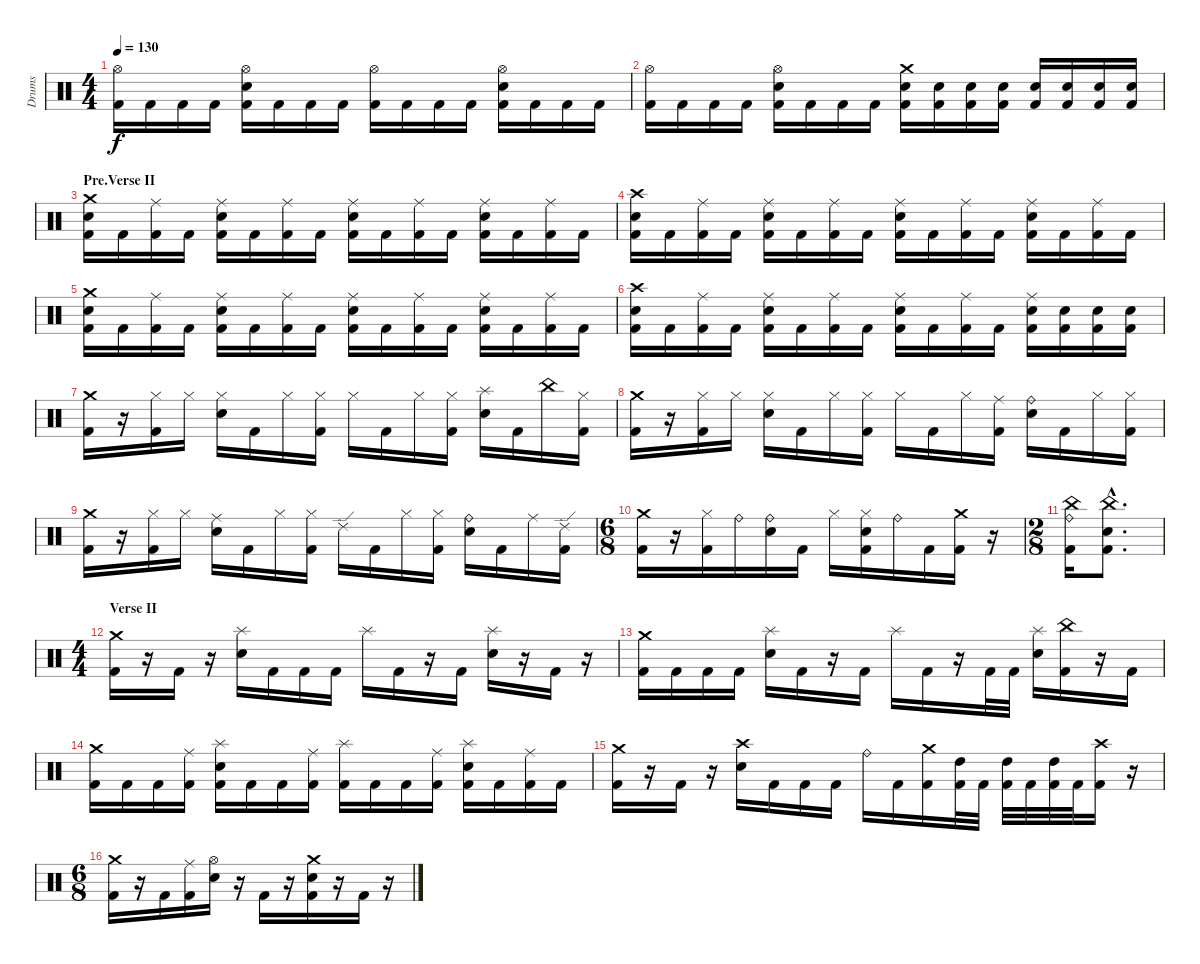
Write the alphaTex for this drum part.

\track ("Drums" "Drums") {instrument percussion}
\staff {score}
\articulation defaults
\ts (4 4)
\tempo 130
\clef neutral
\ks c
("Hi-Hat (open)" "Kick (hit) 2").16{dy f} "Kick (hit) 2".16 "Kick (hit) 2".16 "Kick (hit) 2".16 ("Hi-Hat (open)" "Electric Snare (hit)" "Kick (hit) 2").16 "Kick (hit) 2".16 "Kick (hit) 2".16 "Kick (hit) 2".16 ("Hi-Hat (open)" "Kick (hit) 2").16 "Kick (hit) 2".16 "Kick (hit) 2".16 "Kick (hit) 2".16 ("Hi-Hat (open)" "Electric Snare (hit)" "Kick (hit) 2").16 "Kick (hit) 2".16 "Kick (hit) 2".16 "Kick (hit) 2".16 |
("Hi-Hat (open)" "Kick (hit) 2").16 "Kick (hit) 2".16 "Kick (hit) 2".16 "Kick (hit) 2".16 ("Hi-Hat (open)" "Electric Snare (hit)" "Kick (hit) 2").16 "Kick (hit) 2".16 "Kick (hit) 2".16 "Kick (hit) 2".16 ("Crash medium (hit)" "Electric Snare (hit)" "Kick (hit) 2").16 ("Electric Snare (hit)" "Kick (hit) 2").16 ("Electric Snare (hit)" "Kick (hit) 2").16 ("Electric Snare (hit)" "Kick (hit) 2").16 ("Electric Snare (hit)" "Kick (hit) 2").16 ("Electric Snare (hit)" "Kick (hit) 2").16 ("Electric Snare (hit)" "Kick (hit) 2").16 ("Electric Snare (hit)" "Kick (hit) 2").16 |
\section ("" "Pre.Verse II")
("Crash medium (hit)" "Electric Snare (hit)" "Kick (hit) 2").16 "Kick (hit) 2".16 ("Ride (middle)" "Kick (hit) 2").16 "Kick (hit) 2".16 ("Ride (middle)" "Electric Snare (hit)" "Kick (hit) 2").16 "Kick (hit) 2".16 ("Ride (middle)" "Kick (hit) 2").16 "Kick (hit) 2".16 ("Ride (middle)" "Electric Snare (hit)" "Kick (hit) 2").16 "Kick (hit) 2".16 ("Ride (middle)" "Kick (hit) 2").16 "Kick (hit) 2".16 ("Ride (middle)" "Electric Snare (hit)" "Kick (hit) 2").16 "Kick (hit) 2".16 ("Ride (middle)" "Kick (hit) 2").16 "Kick (hit) 2".16 |
("Crash high (hit)" "Electric Snare (hit)" "Kick (hit) 2").16 "Kick (hit) 2".16 ("Ride (middle)" "Kick (hit) 2").16 "Kick (hit) 2".16 ("Ride (middle)" "Electric Snare (hit)" "Kick (hit) 2").16 "Kick (hit) 2".16 ("Ride (middle)" "Kick (hit) 2").16 "Kick (hit) 2".16 ("Ride (middle)" "Electric Snare (hit)" "Kick (hit) 2").16 "Kick (hit) 2".16 ("Ride (middle)" "Kick (hit) 2").16 "Kick (hit) 2".16 ("Ride (middle)" "Electric Snare (hit)" "Kick (hit) 2").16 "Kick (hit) 2".16 ("Ride (middle)" "Kick (hit) 2").16 "Kick (hit) 2".16 |
("Crash medium (hit)" "Electric Snare (hit)" "Kick (hit) 2").16 "Kick (hit) 2".16 ("Ride (middle)" "Kick (hit) 2").16 "Kick (hit) 2".16 ("Ride (middle)" "Electric Snare (hit)" "Kick (hit) 2").16 "Kick (hit) 2".16 ("Ride (middle)" "Kick (hit) 2").16 "Kick (hit) 2".16 ("Ride (middle)" "Electric Snare (hit)" "Kick (hit) 2").16 "Kick (hit) 2".16 ("Ride (middle)" "Kick (hit) 2").16 "Kick (hit) 2".16 ("Ride (middle)" "Electric Snare (hit)" "Kick (hit) 2").16 "Kick (hit) 2".16 ("Ride (middle)" "Kick (hit) 2").16 "Kick (hit) 2".16 |
("Crash high (hit)" "Electric Snare (hit)" "Kick (hit) 2").16 "Kick (hit) 2".16 ("Ride (middle)" "Kick (hit) 2").16 "Kick (hit) 2".16 ("Ride (middle)" "Electric Snare (hit)" "Kick (hit) 2").16 "Kick (hit) 2".16 ("Ride (middle)" "Kick (hit) 2").16 "Kick (hit) 2".16 ("Ride (middle)" "Electric Snare (hit)" "Kick (hit) 2").16 "Kick (hit) 2".16 ("Ride (middle)" "Kick (hit) 2").16 "Kick (hit) 2".16 ("Ride (middle)" "Electric Snare (hit)" "Kick (hit) 2").16 ("Electric Snare (hit)" "Kick (hit) 2").16 ("Electric Snare (hit)" "Kick (hit) 2").16 ("Electric Snare (hit)" "Kick (hit) 2").16 |
("Crash medium (hit)" "Kick (hit) 2").16 r.16 ("Hi-Hat (closed)" "Kick (hit) 2").16 "Hi-Hat (closed)".16 ("Hi-Hat (closed)" "Electric Snare (hit)").16 "Kick (hit) 2".16 "Hi-Hat (closed)".16 ("Hi-Hat (closed)" "Kick (hit) 2").16 "Hi-Hat (closed)".16 "Kick (hit) 2".16 "Hi-Hat (closed)".16 ("Hi-Hat (closed)" "Kick (hit) 2").16 ("Splash (hit)" "Electric Snare (hit)").16 "Kick (hit) 2".16 "China (hit)".16 ("Hi-Hat (closed)" "Kick (hit) 2").16 |
("Crash medium (hit)" "Kick (hit) 2").16 r.16 ("Hi-Hat (closed)" "Kick (hit) 2").16 "Hi-Hat (closed)".16 ("Hi-Hat (closed)" "Electric Snare (hit)").16 "Kick (hit) 2".16 "Hi-Hat (closed)".16 ("Hi-Hat (closed)" "Kick (hit) 2").16 "Hi-Hat (closed)".16 "Kick (hit) 2".16 "Hi-Hat (closed)".16 ("Ride (middle)" "Kick (hit) 2").16 ("Ride (bell)" "Electric Snare (hit)").16 "Kick (hit) 2".16 "Hi-Hat (closed)".16 ("Hi-Hat (closed)" "Kick (hit) 2").16 |
("Crash medium (hit)" "Kick (hit) 2").16 r.16 ("Hi-Hat (closed)" "Kick (hit) 2").16 "Hi-Hat (closed)".16 ("Ride (middle)" "Electric Snare (hit)").16 "Kick (hit) 2".16 "Hi-Hat (closed)".16 ("Hi-Hat (closed)" "Kick (hit) 2").16 "Ride (edge) 2".16 "Kick (hit) 2".16 "Hi-Hat (closed)".16 ("Hi-Hat (closed)" "Kick (hit) 2").16 ("Ride (bell)" "Electric Snare (hit)").16 "Kick (hit) 2".16 "Ride (middle)".16 ("Ride (edge) 2" "Kick (hit) 2").16 |
\ts (6 8)
("Crash medium (hit)" "Kick (hit) 2").16 r.16 ("Hi-Hat (closed)" "Kick (hit) 2").16 "Ride (bell)".16 ("Ride (bell)" "Electric Snare (hit)").16 "Kick (hit) 2".16 "Hi-Hat (closed)".16 ("Hi-Hat (closed)" "Electric Snare (hit)" "Kick (hit) 2").16 "Ride (bell)".16 "Kick (hit) 2".16 ("Crash medium (hit)" "Kick (hit) 2").16 r.16 |
\ts (2 8)
("China (hit)" "Ride (bell)" "Kick (hit) 2").16 ("China (hit)"{hac} "Electric Snare (hit)"{hac} "Kick (hit) 2"{hac}).8{d} |
\ts (4 4)
\section ("" "Verse II")
("Crash medium (hit)" "Kick (hit) 2").16 r.16 "Kick (hit) 2".16 r.16 ("Splash (hit)" "Electric Snare (hit)").16 "Kick (hit) 2".16 "Kick (hit) 2".16 "Kick (hit) 2".16 "Splash (hit)".16 "Kick (hit) 2".16 r.16 "Kick (hit) 2".16 ("Splash (hit)" "Electric Snare (hit)").16 r.16 "Kick (hit) 2".16 r.16 |
("Crash medium (hit)" "Kick (hit) 2").16 "Kick (hit) 2".16 "Kick (hit) 2".16 "Kick (hit) 2".16 ("Splash (hit)" "Electric Snare (hit)").16 "Kick (hit) 2".16 r.16 "Kick (hit) 2".16 "Splash (hit)".16 "Kick (hit) 2".16 r.16 "Kick (hit) 2".32 "Kick (hit) 2".32 ("Splash (hit)" "Electric Snare (hit)").16 ("China (hit)" "Kick (hit) 2").16 r.16 "Kick (hit) 2".16 |
("Crash medium (hit)" "Kick (hit) 2").16 "Kick (hit) 2".16 "Kick (hit) 2".16 ("Ride (middle)" "Kick (hit) 2").16 ("Splash (hit)" "Electric Snare (hit)" "Kick (hit) 2").16 "Kick (hit) 2".16 "Kick (hit) 2".16 ("Ride (middle)" "Kick (hit) 2").16 ("Splash (hit)" "Kick (hit) 2").16 "Kick (hit) 2".16 "Kick (hit) 2".16 ("Ride (middle)" "Kick (hit) 2").16 ("Splash (hit)" "Electric Snare (hit)" "Kick (hit) 2").16 "Kick (hit) 2".16 ("Ride (middle)" "Kick (hit) 2").16 "Kick (hit) 2".16 |
("Crash medium (hit)" "Kick (hit) 2").16 r.16 "Kick (hit) 2".16 r.16 ("Crash high (hit)" "Electric Snare (hit)").16 "Kick (hit) 2".16 "Kick (hit) 2".16 "Kick (hit) 2".16 "Ride (bell)".16 "Kick (hit) 2".16 ("Crash medium (hit)" "Kick (hit) 2").16 ("High Tom (hit)" "Kick (hit) 2").32 "Kick (hit) 2".32 ("High Tom (hit)" "Kick (hit) 2").32 "Kick (hit) 2".32 ("High Tom (hit)" "Kick (hit) 2").32 "Kick (hit) 2".32 ("Crash high (hit)" "Kick (hit) 2").16 r.16 |
\ts (6 8)
("Crash medium (hit)" "Kick (hit) 2").16 r.16 "Kick (hit) 2".16 ("Ride (middle)" "Kick (hit) 2").16 ("Hi-Hat (open)" "Electric Snare (hit)").16 r.16 "Kick (hit) 2".16 r.16 ("Crash medium (hit)" "Electric Snare (hit)" "Kick (hit) 2").16 r.16 "Kick (hit) 2".16 r.16
